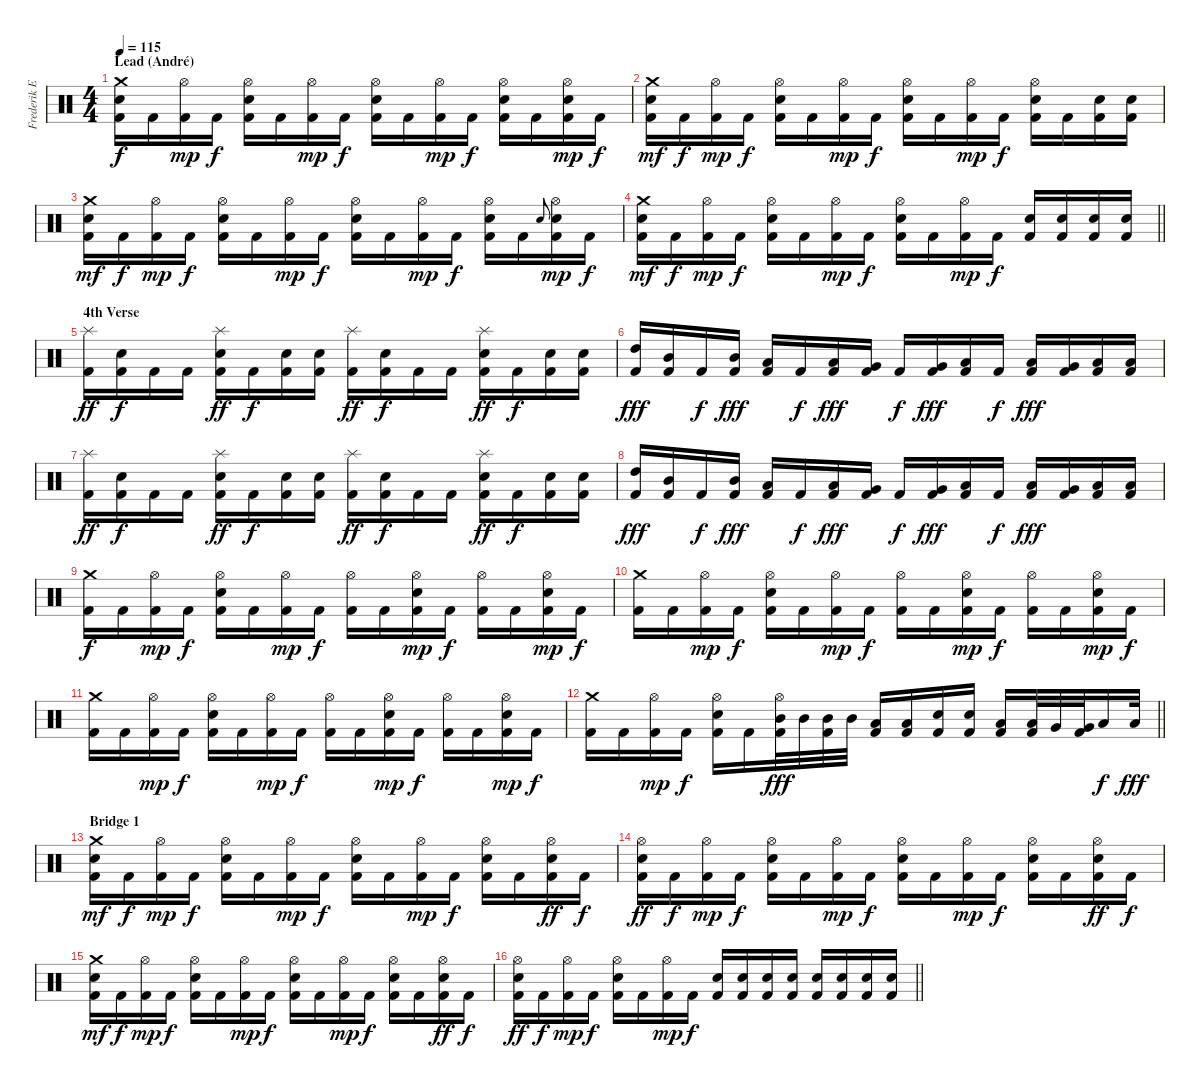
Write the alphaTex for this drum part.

\track ("Frederik Ehmke" "Frederik E") {instrument percussion}
\staff {score}
\articulation defaults
\ts (4 4)
\section ("" "Lead (André)")
\tempo 115
\clef neutral
\ks c
("Crash medium (hit)" "Electric Snare (hit)" "Kick (hit) 2").16{dy f} "Kick (hit) 2".16 ("Hi-Hat (open)" "Kick (hit) 2").16{dy mp} "Kick (hit) 2".16{dy f} ("Hi-Hat (open)" "Electric Snare (hit)" "Kick (hit) 2").16 "Kick (hit) 2".16 ("Hi-Hat (open)" "Kick (hit) 2").16{dy mp} "Kick (hit) 2".16{dy f} ("Hi-Hat (open)" "Electric Snare (hit)" "Kick (hit) 2").16 "Kick (hit) 2".16 ("Hi-Hat (open)" "Kick (hit) 2").16{dy mp} "Kick (hit) 2".16{dy f} ("Hi-Hat (open)" "Electric Snare (hit)" "Kick (hit) 2").16 "Kick (hit) 2".16 ("Hi-Hat (open)" "Electric Snare (hit)" "Kick (hit) 2").16{dy mp} "Kick (hit) 2".16{dy f} |
("Crash medium (hit)" "Electric Snare (hit)" "Kick (hit) 2").16{dy mf} "Kick (hit) 2".16{dy f} ("Hi-Hat (open)" "Kick (hit) 2").16{dy mp} "Kick (hit) 2".16{dy f} ("Hi-Hat (open)" "Electric Snare (hit)" "Kick (hit) 2").16 "Kick (hit) 2".16 ("Hi-Hat (open)" "Kick (hit) 2").16{dy mp} "Kick (hit) 2".16{dy f} ("Hi-Hat (open)" "Electric Snare (hit)" "Kick (hit) 2").16 "Kick (hit) 2".16 ("Hi-Hat (open)" "Kick (hit) 2").16{dy mp} "Kick (hit) 2".16{dy f} ("Hi-Hat (open)" "Electric Snare (hit)" "Kick (hit) 2").16 "Kick (hit) 2".16 ("Electric Snare (hit)" "Kick (hit) 2").16 ("Electric Snare (hit)" "Kick (hit) 2").16 |
("Crash medium (hit)" "Electric Snare (hit)" "Kick (hit) 2").16{dy mf} "Kick (hit) 2".16{dy f} ("Hi-Hat (open)" "Kick (hit) 2").16{dy mp} "Kick (hit) 2".16{dy f} ("Hi-Hat (open)" "Electric Snare (hit)" "Kick (hit) 2").16 "Kick (hit) 2".16 ("Hi-Hat (open)" "Kick (hit) 2").16{dy mp} "Kick (hit) 2".16{dy f} ("Hi-Hat (open)" "Electric Snare (hit)" "Kick (hit) 2").16 "Kick (hit) 2".16 ("Hi-Hat (open)" "Kick (hit) 2").16{dy mp} "Kick (hit) 2".16{dy f} ("Hi-Hat (open)" "Electric Snare (hit)" "Kick (hit) 2").16 "Kick (hit) 2".16 "Electric Snare (hit)".8{gr onbeat} ("Hi-Hat (open)" "Electric Snare (hit)" "Kick (hit) 2").16{dy mp} "Kick (hit) 2".16{dy f} |
\barLineRight lightlight
("Crash medium (hit)" "Electric Snare (hit)" "Kick (hit) 2").16{dy mf} "Kick (hit) 2".16{dy f} ("Hi-Hat (open)" "Kick (hit) 2").16{dy mp} "Kick (hit) 2".16{dy f} ("Hi-Hat (open)" "Electric Snare (hit)" "Kick (hit) 2").16 "Kick (hit) 2".16 ("Hi-Hat (open)" "Kick (hit) 2").16{dy mp} "Kick (hit) 2".16{dy f} ("Hi-Hat (open)" "Electric Snare (hit)" "Kick (hit) 2").16 "Kick (hit) 2".16 ("Hi-Hat (open)" "Kick (hit) 2").16{dy mp} "Kick (hit) 2".16{dy f} ("Electric Snare (hit)" "Kick (hit) 2").16 ("Electric Snare (hit)" "Kick (hit) 2").16 ("Electric Snare (hit)" "Kick (hit) 2").16 ("Electric Snare (hit)" "Kick (hit) 2").16 |
\section ("" "4th Verse")
("Splash (hit)" "Kick (hit) 2").16{dy ff} ("Electric Snare (hit)" "Kick (hit) 2").16{dy f} "Kick (hit) 2".16 "Kick (hit) 2".16 ("Splash (hit)" "Electric Snare (hit)" "Kick (hit) 2").16{dy ff} "Kick (hit) 2".16{dy f} ("Electric Snare (hit)" "Kick (hit) 2").16 ("Electric Snare (hit)" "Kick (hit) 2").16 ("Splash (hit)" "Kick (hit) 2").16{dy ff} ("Electric Snare (hit)" "Kick (hit) 2").16{dy f} "Kick (hit) 2".16 "Kick (hit) 2".16 ("Splash (hit)" "Electric Snare (hit)" "Kick (hit) 2").16{dy ff} "Kick (hit) 2".16{dy f} ("Electric Snare (hit)" "Kick (hit) 2").16 ("Electric Snare (hit)" "Kick (hit) 2").16 |
("High Tom (hit)" "Kick (hit) 2").16{dy fff} ("Mid Tom (hit)" "Kick (hit) 2").16 "Kick (hit) 2".16{dy f} ("Mid Tom (hit)" "Kick (hit) 2").16{dy fff} ("Low Tom (hit)" "Kick (hit) 2").16 "Kick (hit) 2".16{dy f} ("Low Tom (hit)" "Kick (hit) 2").16{dy fff} ("Very Low Tom (hit)" "Kick (hit) 2").16 "Kick (hit) 2".16{dy f} ("Very Low Tom (hit)" "Kick (hit) 2").16{dy fff} ("Low Floor Tom (hit)" "Kick (hit) 2").16 "Kick (hit) 2".16{dy f} ("Low Tom (hit)" "Kick (hit) 2").16{dy fff} ("Very Low Tom (hit)" "Kick (hit) 2").16 ("Low Floor Tom (hit)" "Kick (hit) 2").16 ("Low Floor Tom (hit)" "Kick (hit) 2").16 |
("Splash (hit)" "Kick (hit) 2").16{dy ff} ("Electric Snare (hit)" "Kick (hit) 2").16{dy f} "Kick (hit) 2".16 "Kick (hit) 2".16 ("Splash (hit)" "Electric Snare (hit)" "Kick (hit) 2").16{dy ff} "Kick (hit) 2".16{dy f} ("Electric Snare (hit)" "Kick (hit) 2").16 ("Electric Snare (hit)" "Kick (hit) 2").16 ("Splash (hit)" "Kick (hit) 2").16{dy ff} ("Electric Snare (hit)" "Kick (hit) 2").16{dy f} "Kick (hit) 2".16 "Kick (hit) 2".16 ("Splash (hit)" "Electric Snare (hit)" "Kick (hit) 2").16{dy ff} "Kick (hit) 2".16{dy f} ("Electric Snare (hit)" "Kick (hit) 2").16 ("Electric Snare (hit)" "Kick (hit) 2").16 |
("High Tom (hit)" "Kick (hit) 2").16{dy fff} ("Mid Tom (hit)" "Kick (hit) 2").16 "Kick (hit) 2".16{dy f} ("Mid Tom (hit)" "Kick (hit) 2").16{dy fff} ("Low Tom (hit)" "Kick (hit) 2").16 "Kick (hit) 2".16{dy f} ("Low Tom (hit)" "Kick (hit) 2").16{dy fff} ("Very Low Tom (hit)" "Kick (hit) 2").16 "Kick (hit) 2".16{dy f} ("Very Low Tom (hit)" "Kick (hit) 2").16{dy fff} ("Low Floor Tom (hit)" "Kick (hit) 2").16 "Kick (hit) 2".16{dy f} ("Low Tom (hit)" "Kick (hit) 2").16{dy fff} ("Very Low Tom (hit)" "Kick (hit) 2").16 ("Low Floor Tom (hit)" "Kick (hit) 2").16 ("Low Floor Tom (hit)" "Kick (hit) 2").16 |
("Crash medium (hit)" "Kick (hit) 2").16{dy f} "Kick (hit) 2".16 ("Hi-Hat (open)" "Kick (hit) 2").16{dy mp} "Kick (hit) 2".16{dy f} ("Hi-Hat (open)" "Electric Snare (hit)" "Kick (hit) 2").16 "Kick (hit) 2".16 ("Hi-Hat (open)" "Kick (hit) 2").16{dy mp} "Kick (hit) 2".16{dy f} ("Hi-Hat (open)" "Kick (hit) 2").16 "Kick (hit) 2".16 ("Hi-Hat (open)" "Electric Snare (hit)" "Kick (hit) 2").16{dy mp} "Kick (hit) 2".16{dy f} ("Hi-Hat (open)" "Kick (hit) 2").16 "Kick (hit) 2".16 ("Hi-Hat (open)" "Electric Snare (hit)" "Kick (hit) 2").16{dy mp} "Kick (hit) 2".16{dy f} |
("Crash medium (hit)" "Kick (hit) 2").16 "Kick (hit) 2".16 ("Hi-Hat (open)" "Kick (hit) 2").16{dy mp} "Kick (hit) 2".16{dy f} ("Hi-Hat (open)" "Electric Snare (hit)" "Kick (hit) 2").16 "Kick (hit) 2".16 ("Hi-Hat (open)" "Kick (hit) 2").16{dy mp} "Kick (hit) 2".16{dy f} ("Hi-Hat (open)" "Kick (hit) 2").16 "Kick (hit) 2".16 ("Hi-Hat (open)" "Electric Snare (hit)" "Kick (hit) 2").16{dy mp} "Kick (hit) 2".16{dy f} ("Hi-Hat (open)" "Kick (hit) 2").16 "Kick (hit) 2".16 ("Hi-Hat (open)" "Electric Snare (hit)" "Kick (hit) 2").16{dy mp} "Kick (hit) 2".16{dy f} |
("Crash medium (hit)" "Kick (hit) 2").16 "Kick (hit) 2".16 ("Hi-Hat (open)" "Kick (hit) 2").16{dy mp} "Kick (hit) 2".16{dy f} ("Hi-Hat (open)" "Electric Snare (hit)" "Kick (hit) 2").16 "Kick (hit) 2".16 ("Hi-Hat (open)" "Kick (hit) 2").16{dy mp} "Kick (hit) 2".16{dy f} ("Hi-Hat (open)" "Kick (hit) 2").16 "Kick (hit) 2".16 ("Hi-Hat (open)" "Electric Snare (hit)" "Kick (hit) 2").16{dy mp} "Kick (hit) 2".16{dy f} ("Hi-Hat (open)" "Kick (hit) 2").16 "Kick (hit) 2".16 ("Hi-Hat (open)" "Electric Snare (hit)" "Kick (hit) 2").16{dy mp} "Kick (hit) 2".16{dy f} |
\barLineRight lightlight
("Crash medium (hit)" "Kick (hit) 2").16 "Kick (hit) 2".16 ("Hi-Hat (open)" "Kick (hit) 2").16{dy mp} "Kick (hit) 2".16{dy f} ("Hi-Hat (open)" "Electric Snare (hit)" "Kick (hit) 2").16 "Kick (hit) 2".16 ("Hi-Hat (open)" "Mid Tom (hit)" "Kick (hit) 2").32{dy fff} "Mid Tom (hit)".32 ("Mid Tom (hit)" "Kick (hit) 2").32 "Mid Tom (hit)".32 ("Low Tom (hit)" "Kick (hit) 2").16 ("Low Tom (hit)" "Kick (hit) 2").16 ("Electric Snare (hit)" "Kick (hit) 2").16 ("Electric Snare (hit)" "Kick (hit) 2").16 ("Low Tom (hit)" "Kick (hit) 2").16 ("Low Tom (hit)" "Kick (hit) 2").32 "Very Low Tom (hit)".32 ("Very Low Tom (hit)" "Kick (hit) 2").32 "Low Floor Tom (hit)".16{dy f} "Low Floor Tom (hit)".32{dy fff} |
\section ("" "Bridge 1")
("Crash medium (hit)" "Electric Snare (hit)" "Kick (hit) 2").16{dy mf} "Kick (hit) 2".16{dy f} ("Hi-Hat (open)" "Kick (hit) 2").16{dy mp} "Kick (hit) 2".16{dy f} ("Hi-Hat (open)" "Electric Snare (hit)" "Kick (hit) 2").16 "Kick (hit) 2".16 ("Hi-Hat (open)" "Kick (hit) 2").16{dy mp} "Kick (hit) 2".16{dy f} ("Hi-Hat (open)" "Electric Snare (hit)" "Kick (hit) 2").16 "Kick (hit) 2".16 ("Hi-Hat (open)" "Kick (hit) 2").16{dy mp} "Kick (hit) 2".16{dy f} ("Hi-Hat (open)" "Electric Snare (hit)" "Kick (hit) 2").16 "Kick (hit) 2".16 ("Hi-Hat (open)" "Electric Snare (hit)" "Kick (hit) 2").16{dy ff} "Kick (hit) 2".16{dy f} |
("Hi-Hat (open)" "Electric Snare (hit)" "Kick (hit) 2").16{dy ff} "Kick (hit) 2".16{dy f} ("Hi-Hat (open)" "Kick (hit) 2").16{dy mp} "Kick (hit) 2".16{dy f} ("Hi-Hat (open)" "Electric Snare (hit)" "Kick (hit) 2").16 "Kick (hit) 2".16 ("Hi-Hat (open)" "Kick (hit) 2").16{dy mp} "Kick (hit) 2".16{dy f} ("Hi-Hat (open)" "Electric Snare (hit)" "Kick (hit) 2").16 "Kick (hit) 2".16 ("Hi-Hat (open)" "Kick (hit) 2").16{dy mp} "Kick (hit) 2".16{dy f} ("Hi-Hat (open)" "Electric Snare (hit)" "Kick (hit) 2").16 "Kick (hit) 2".16 ("Hi-Hat (open)" "Electric Snare (hit)" "Kick (hit) 2").16{dy ff} "Kick (hit) 2".16{dy f} |
("Crash medium (hit)" "Electric Snare (hit)" "Kick (hit) 2").16{dy mf} "Kick (hit) 2".16{dy f} ("Hi-Hat (open)" "Kick (hit) 2").16{dy mp} "Kick (hit) 2".16{dy f} ("Hi-Hat (open)" "Electric Snare (hit)" "Kick (hit) 2").16 "Kick (hit) 2".16 ("Hi-Hat (open)" "Kick (hit) 2").16{dy mp} "Kick (hit) 2".16{dy f} ("Hi-Hat (open)" "Electric Snare (hit)" "Kick (hit) 2").16 "Kick (hit) 2".16 ("Hi-Hat (open)" "Kick (hit) 2").16{dy mp} "Kick (hit) 2".16{dy f} ("Hi-Hat (open)" "Electric Snare (hit)" "Kick (hit) 2").16 "Kick (hit) 2".16 ("Hi-Hat (open)" "Electric Snare (hit)" "Kick (hit) 2").16{dy ff} "Kick (hit) 2".16{dy f} |
\barLineRight lightlight
("Hi-Hat (open)" "Electric Snare (hit)" "Kick (hit) 2").16{dy ff} "Kick (hit) 2".16{dy f} ("Hi-Hat (open)" "Kick (hit) 2").16{dy mp} "Kick (hit) 2".16{dy f} ("Hi-Hat (open)" "Electric Snare (hit)" "Kick (hit) 2").16 "Kick (hit) 2".16 ("Hi-Hat (open)" "Kick (hit) 2").16{dy mp} "Kick (hit) 2".16{dy f} ("Electric Snare (hit)" "Kick (hit) 2").16 ("Electric Snare (hit)" "Kick (hit) 2").16 ("Electric Snare (hit)" "Kick (hit) 2").16 ("Electric Snare (hit)" "Kick (hit) 2").16 ("Electric Snare (hit)" "Kick (hit) 2").16 ("Electric Snare (hit)" "Kick (hit) 2").16 ("Electric Snare (hit)" "Kick (hit) 2").16 ("Electric Snare (hit)" "Kick (hit) 2").16
